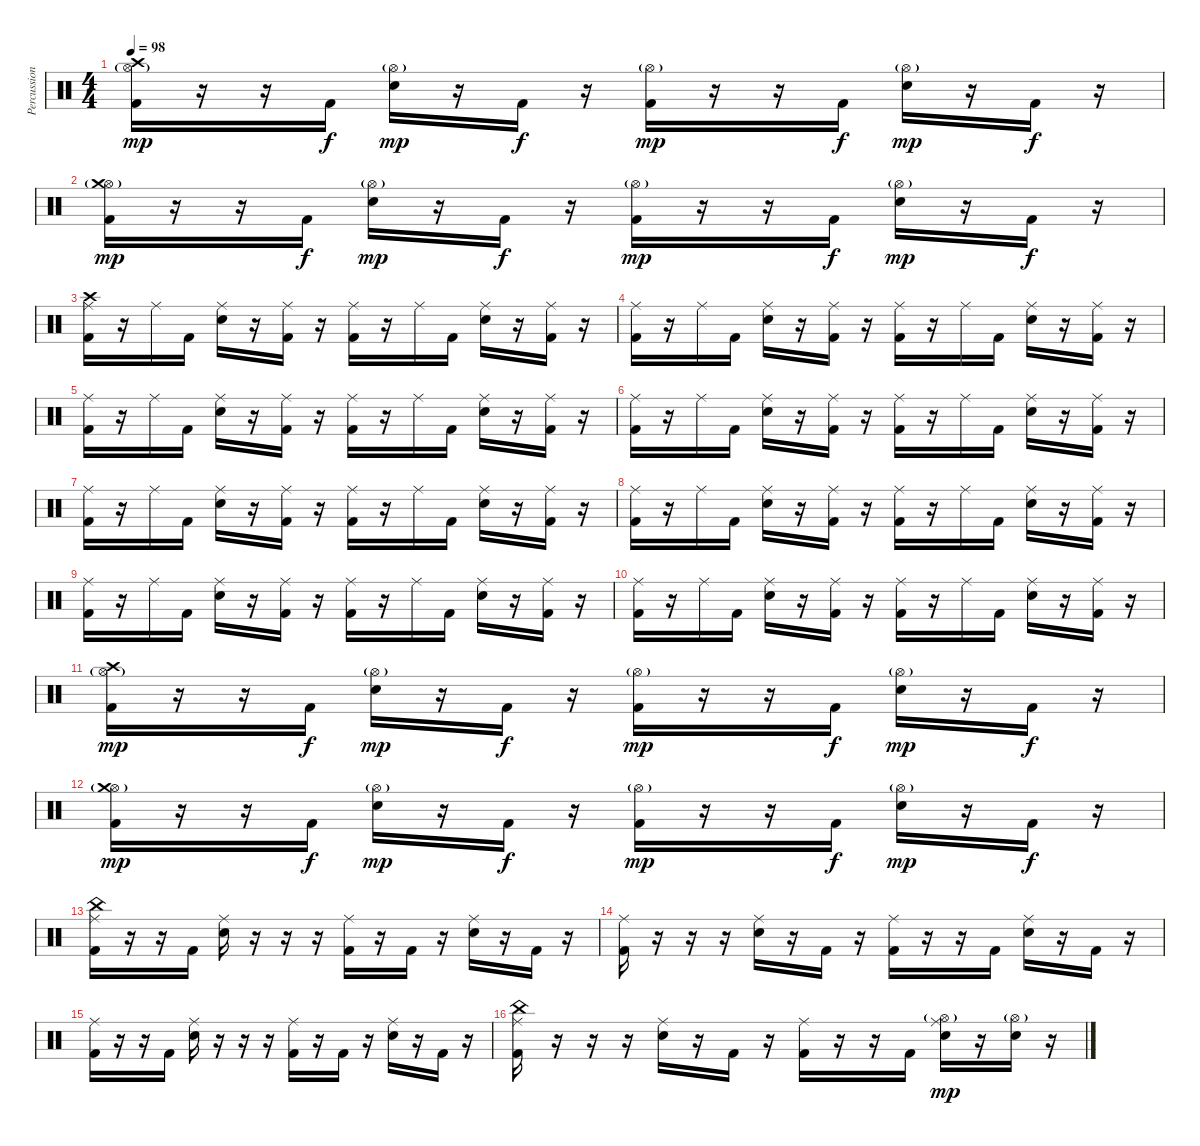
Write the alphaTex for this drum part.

\track ("Percussions" "Percussion") {instrument percussion}
\staff {score}
\articulation defaults
\ts (4 4)
\tempo 98
\clef neutral
\ks c
("Hi-Hat (open)"{g} "Crash high (hit)" "Kick (hit) 2").16{dy mp} r.16 r.16 "Kick (hit) 2".16{dy f} ("Hi-Hat (open)"{g} "Snare (hit) 2").16{dy mp} r.16 "Kick (hit) 2".16{dy f} r.16 ("Hi-Hat (open)"{g} "Kick (hit) 2").16{dy mp} r.16 r.16 "Kick (hit) 2".16{dy f} ("Hi-Hat (open)"{g} "Snare (hit) 2").16{dy mp} r.16 "Kick (hit) 2".16{dy f} r.16 |
("Hi-Hat (open)"{g} "Crash medium (hit)" "Kick (hit) 2").16{dy mp} r.16 r.16 "Kick (hit) 2".16{dy f} ("Hi-Hat (open)"{g} "Snare (hit) 2").16{dy mp} r.16 "Kick (hit) 2".16{dy f} r.16 ("Hi-Hat (open)"{g} "Kick (hit) 2").16{dy mp} r.16 r.16 "Kick (hit) 2".16{dy f} ("Hi-Hat (open)"{g} "Snare (hit) 2").16{dy mp} r.16 "Kick (hit) 2".16{dy f} r.16 |
("Ride (middle)" "Crash high (hit)" "Kick (hit) 2").16 r.16 "Ride (middle)".16 "Kick (hit) 2".16 ("Ride (middle)" "Snare (hit) 2").16 r.16 ("Ride (middle)" "Kick (hit) 2").16 r.16 ("Ride (middle)" "Kick (hit) 2").16 r.16 "Ride (middle)".16 "Kick (hit) 2".16 ("Ride (middle)" "Snare (hit) 2").16 r.16 ("Ride (middle)" "Kick (hit) 2").16 r.16 |
("Ride (middle)" "Kick (hit) 2").16 r.16 "Ride (middle)".16 "Kick (hit) 2".16 ("Ride (middle)" "Snare (hit) 2").16 r.16 ("Ride (middle)" "Kick (hit) 2").16 r.16 ("Ride (middle)" "Kick (hit) 2").16 r.16 "Ride (middle)".16 "Kick (hit) 2".16 ("Ride (middle)" "Snare (hit) 2").16 r.16 ("Ride (middle)" "Kick (hit) 2").16 r.16 |
("Ride (middle)" "Kick (hit) 2").16 r.16 "Ride (middle)".16 "Kick (hit) 2".16 ("Ride (middle)" "Snare (hit) 2").16 r.16 ("Ride (middle)" "Kick (hit) 2").16 r.16 ("Ride (middle)" "Kick (hit) 2").16 r.16 "Ride (middle)".16 "Kick (hit) 2".16 ("Ride (middle)" "Snare (hit) 2").16 r.16 ("Ride (middle)" "Kick (hit) 2").16 r.16 |
("Ride (middle)" "Kick (hit) 2").16 r.16 "Ride (middle)".16 "Kick (hit) 2".16 ("Ride (middle)" "Snare (hit) 2").16 r.16 ("Ride (middle)" "Kick (hit) 2").16 r.16 ("Ride (middle)" "Kick (hit) 2").16 r.16 "Ride (middle)".16 "Kick (hit) 2".16 ("Ride (middle)" "Snare (hit) 2").16 r.16 ("Ride (middle)" "Kick (hit) 2").16 r.16 |
("Ride (middle)" "Kick (hit) 2").16 r.16 "Ride (middle)".16 "Kick (hit) 2".16 ("Ride (middle)" "Snare (hit) 2").16 r.16 ("Ride (middle)" "Kick (hit) 2").16 r.16 ("Ride (middle)" "Kick (hit) 2").16 r.16 "Ride (middle)".16 "Kick (hit) 2".16 ("Ride (middle)" "Snare (hit) 2").16 r.16 ("Ride (middle)" "Kick (hit) 2").16 r.16 |
("Ride (middle)" "Kick (hit) 2").16 r.16 "Ride (middle)".16 "Kick (hit) 2".16 ("Ride (middle)" "Snare (hit) 2").16 r.16 ("Ride (middle)" "Kick (hit) 2").16 r.16 ("Ride (middle)" "Kick (hit) 2").16 r.16 "Ride (middle)".16 "Kick (hit) 2".16 ("Ride (middle)" "Snare (hit) 2").16 r.16 ("Ride (middle)" "Kick (hit) 2").16 r.16 |
("Ride (middle)" "Kick (hit) 2").16 r.16 "Ride (middle)".16 "Kick (hit) 2".16 ("Ride (middle)" "Snare (hit) 2").16 r.16 ("Ride (middle)" "Kick (hit) 2").16 r.16 ("Ride (middle)" "Kick (hit) 2").16 r.16 "Ride (middle)".16 "Kick (hit) 2".16 ("Ride (middle)" "Snare (hit) 2").16 r.16 ("Ride (middle)" "Kick (hit) 2").16 r.16 |
("Ride (middle)" "Kick (hit) 2").16 r.16 "Ride (middle)".16 "Kick (hit) 2".16 ("Ride (middle)" "Snare (hit) 2").16 r.16 ("Ride (middle)" "Kick (hit) 2").16 r.16 ("Ride (middle)" "Kick (hit) 2").16 r.16 "Ride (middle)".16 "Kick (hit) 2".16 ("Ride (middle)" "Snare (hit) 2").16 r.16 ("Ride (middle)" "Kick (hit) 2").16 r.16 |
("Hi-Hat (open)"{g} "Crash high (hit)" "Kick (hit) 2").16{dy mp} r.16 r.16 "Kick (hit) 2".16{dy f} ("Hi-Hat (open)"{g} "Snare (hit) 2").16{dy mp} r.16 "Kick (hit) 2".16{dy f} r.16 ("Hi-Hat (open)"{g} "Kick (hit) 2").16{dy mp} r.16 r.16 "Kick (hit) 2".16{dy f} ("Hi-Hat (open)"{g} "Snare (hit) 2").16{dy mp} r.16 "Kick (hit) 2".16{dy f} r.16 |
("Hi-Hat (open)"{g} "Crash medium (hit)" "Kick (hit) 2").16{dy mp} r.16 r.16 "Kick (hit) 2".16{dy f} ("Hi-Hat (open)"{g} "Snare (hit) 2").16{dy mp} r.16 "Kick (hit) 2".16{dy f} r.16 ("Hi-Hat (open)"{g} "Kick (hit) 2").16{dy mp} r.16 r.16 "Kick (hit) 2".16{dy f} ("Hi-Hat (open)"{g} "Snare (hit) 2").16{dy mp} r.16 "Kick (hit) 2".16{dy f} r.16 |
("Ride (middle)" "China (hit)" "Kick (hit) 2").16 r.16 r.16 "Kick (hit) 2".16 ("Ride (middle)" "Snare (hit) 2").16 r.16 r.16 r.16 ("Ride (middle)" "Kick (hit) 2").16 r.16 "Kick (hit) 2".16 r.16 ("Ride (middle)" "Snare (hit) 2").16 r.16 "Kick (hit) 2".16 r.16 |
("Ride (middle)" "Kick (hit) 2").16 r.16 r.16 r.16 ("Ride (middle)" "Snare (hit) 2").16 r.16 "Kick (hit) 2".16 r.16 ("Ride (middle)" "Kick (hit) 2").16 r.16 r.16 "Kick (hit) 2".16 ("Ride (middle)" "Snare (hit) 2").16 r.16 "Kick (hit) 2".16 r.16 |
("Ride (middle)" "Kick (hit) 2").16 r.16 r.16 "Kick (hit) 2".16 ("Ride (middle)" "Snare (hit) 2").16 r.16 r.16 r.16 ("Ride (middle)" "Kick (hit) 2").16 r.16 "Kick (hit) 2".16 r.16 ("Ride (middle)" "Snare (hit) 2").16 r.16 "Kick (hit) 2".16 r.16 |
("Ride (middle)" "China (hit)" "Kick (hit) 2").16 r.16 r.16 r.16 ("Ride (middle)" "Snare (hit) 2").16 r.16 "Kick (hit) 2".16 r.16 ("Ride (middle)" "Kick (hit) 2").16 r.16 r.16 "Kick (hit) 2".16 ("Ride (middle)" "Hi-Hat (open)"{g} "Snare (hit) 2").16{dy mp} r.16 ("Hi-Hat (open)"{g} "Snare (hit) 2").16 r.16
